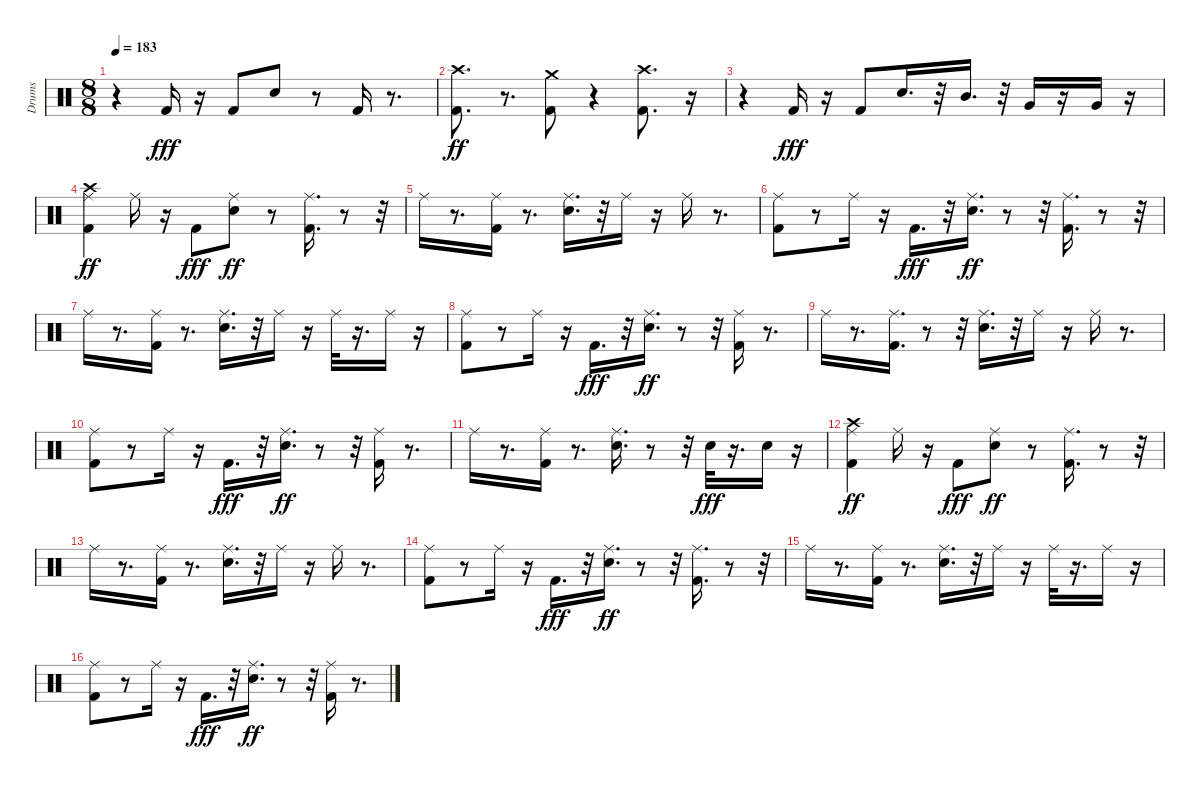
\track ("Drums" "Drums") {instrument percussion}
\staff {score}
\articulation defaults
\ts (8 8)
\tempo 183
\clef neutral
\ks c
r.4{dy ff} "Kick (hit) 2".16{dy fff} r.16 "Kick (hit) 2".8 "Snare (hit) 2".8 r.8 "Kick (hit) 2".16 r.8{d} |
("Kick (hit) 2" "Crash high (hit)").8{d dy ff} r.8{d} ("Kick (hit) 2" "Crash medium (hit)").8 r.4 ("Kick (hit) 2" "Crash high (hit)").8{d} r.16 |
r.4 "Kick (hit) 2".16{dy fff} r.16 "Kick (hit) 2".8 "Snare (hit) 2".16{d} r.32 "Mid Tom (hit)".16{d} r.32 "Very Low Tom (hit)".16 r.16 "Very Low Tom (hit)".16 r.16 |
("Kick (hit) 2" "Ride (middle)" "Crash high (hit)").4{dy ff} "Ride (middle)".16 r.16 "Kick (hit) 2".8{dy fff} ("Snare (hit) 2" "Ride (middle)").8{dy ff} r.8 ("Kick (hit) 2" "Ride (middle)").16{d} r.8 r.32 |
"Ride (middle)".16 r.8{d} ("Kick (hit) 2" "Ride (middle)").16 r.8{d} ("Snare (hit) 2" "Ride (middle)").16{d} r.32 "Ride (middle)".16 r.16 "Ride (middle)".16 r.8{d} |
("Kick (hit) 2" "Ride (middle)").8 r.8 "Ride (middle)".16 r.16 "Kick (hit) 2".16{d dy fff} r.32 ("Snare (hit) 2" "Ride (middle)").16{d dy ff} r.8 r.32 ("Kick (hit) 2" "Ride (middle)").16{d} r.8 r.32 |
"Ride (middle)".16 r.8{d} ("Kick (hit) 2" "Ride (middle)").16 r.8{d} ("Snare (hit) 2" "Ride (middle)").16{d} r.32 "Ride (middle)".16 r.16 "Ride (middle)".32 r.16{d} "Ride (middle)".16 r.16 |
("Kick (hit) 2" "Ride (middle)").8 r.8 "Ride (middle)".16 r.16 "Kick (hit) 2".16{d dy fff} r.32 ("Snare (hit) 2" "Ride (middle)").16{d dy ff} r.8 r.32 ("Kick (hit) 2" "Ride (middle)").16 r.8{d} |
"Ride (middle)".16 r.8{d} ("Kick (hit) 2" "Ride (middle)").16{d} r.8 r.32 ("Snare (hit) 2" "Ride (middle)").16{d} r.32 "Ride (middle)".16 r.16 "Ride (middle)".16 r.8{d} |
("Kick (hit) 2" "Ride (middle)").8 r.8 "Ride (middle)".16 r.16 "Kick (hit) 2".16{d dy fff} r.32 ("Snare (hit) 2" "Ride (middle)").16{d dy ff} r.8 r.32 ("Kick (hit) 2" "Ride (middle)").16 r.8{d} |
"Ride (middle)".16 r.8{d} ("Kick (hit) 2" "Ride (middle)").16 r.8{d} ("Snare (hit) 2" "Ride (middle)").16{d} r.8 r.32 "Snare (hit) 2".32{dy fff} r.16{d} "Snare (hit) 2".16 r.16 |
("Kick (hit) 2" "Ride (middle)" "Crash high (hit)").4{dy ff} "Ride (middle)".16 r.16 "Kick (hit) 2".8{dy fff} ("Snare (hit) 2" "Ride (middle)").8{dy ff} r.8 ("Kick (hit) 2" "Ride (middle)").16{d} r.8 r.32 |
"Ride (middle)".16 r.8{d} ("Kick (hit) 2" "Ride (middle)").16 r.8{d} ("Snare (hit) 2" "Ride (middle)").16{d} r.32 "Ride (middle)".16 r.16 "Ride (middle)".16 r.8{d} |
("Kick (hit) 2" "Ride (middle)").8 r.8 "Ride (middle)".16 r.16 "Kick (hit) 2".16{d dy fff} r.32 ("Snare (hit) 2" "Ride (middle)").16{d dy ff} r.8 r.32 ("Kick (hit) 2" "Ride (middle)").16{d} r.8 r.32 |
"Ride (middle)".16 r.8{d} ("Kick (hit) 2" "Ride (middle)").16 r.8{d} ("Snare (hit) 2" "Ride (middle)").16{d} r.32 "Ride (middle)".16 r.16 "Ride (middle)".32 r.16{d} "Ride (middle)".16 r.16 |
("Kick (hit) 2" "Ride (middle)").8 r.8 "Ride (middle)".16 r.16 "Kick (hit) 2".16{d dy fff} r.32 ("Snare (hit) 2" "Ride (middle)").16{d dy ff} r.8 r.32 ("Kick (hit) 2" "Ride (middle)").16 r.8{d}
